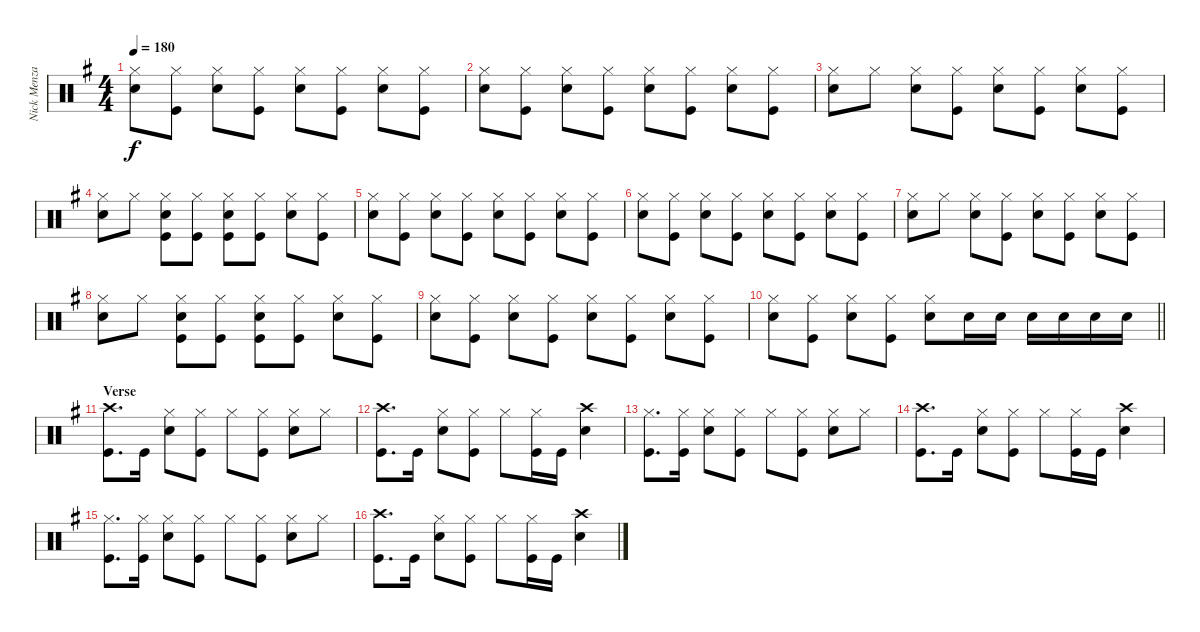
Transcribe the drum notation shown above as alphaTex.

\track ("Nick Menza" "Nick Menza") {instrument percussion}
\staff {score}
\articulation defaults
\ts (4 4)
\tempo 180
\clef neutral
\ks g
("Hi-Hat (closed)" "Snare (hit) 2").8{dy f} ("Kick (hit)" "Hi-Hat (closed)").8 ("Hi-Hat (closed)" "Snare (hit) 2").8 ("Kick (hit)" "Hi-Hat (closed)").8 ("Hi-Hat (closed)" "Snare (hit) 2").8 ("Kick (hit)" "Hi-Hat (closed)").8 ("Hi-Hat (closed)" "Snare (hit) 2").8 ("Kick (hit)" "Hi-Hat (closed)").8 |
("Hi-Hat (closed)" "Snare (hit) 2").8 ("Kick (hit)" "Hi-Hat (closed)").8 ("Hi-Hat (closed)" "Snare (hit) 2").8 ("Kick (hit)" "Hi-Hat (closed)").8 ("Hi-Hat (closed)" "Snare (hit) 2").8 ("Kick (hit)" "Hi-Hat (closed)").8 ("Hi-Hat (closed)" "Snare (hit) 2").8 ("Kick (hit)" "Hi-Hat (closed)").8 |
("Hi-Hat (closed)" "Snare (hit) 2").8 "Hi-Hat (closed)".8 ("Hi-Hat (closed)" "Snare (hit) 2").8 ("Kick (hit)" "Hi-Hat (closed)").8 ("Hi-Hat (closed)" "Snare (hit) 2").8 ("Kick (hit)" "Hi-Hat (closed)").8 ("Hi-Hat (closed)" "Snare (hit) 2").8 ("Kick (hit)" "Hi-Hat (closed)").8 |
("Hi-Hat (closed)" "Snare (hit) 2").8 "Hi-Hat (closed)".8 ("Kick (hit)" "Hi-Hat (closed)" "Snare (hit) 2").8 ("Kick (hit)" "Hi-Hat (closed)").8 ("Kick (hit)" "Hi-Hat (closed)" "Snare (hit) 2").8 ("Kick (hit)" "Hi-Hat (closed)").8 ("Hi-Hat (closed)" "Snare (hit) 2").8 ("Kick (hit)" "Hi-Hat (closed)").8 |
("Hi-Hat (closed)" "Snare (hit) 2").8 ("Kick (hit)" "Hi-Hat (closed)").8 ("Hi-Hat (closed)" "Snare (hit) 2").8 ("Kick (hit)" "Hi-Hat (closed)").8 ("Hi-Hat (closed)" "Snare (hit) 2").8 ("Kick (hit)" "Hi-Hat (closed)").8 ("Hi-Hat (closed)" "Snare (hit) 2").8 ("Kick (hit)" "Hi-Hat (closed)").8 |
("Hi-Hat (closed)" "Snare (hit) 2").8 ("Kick (hit)" "Hi-Hat (closed)").8 ("Hi-Hat (closed)" "Snare (hit) 2").8 ("Kick (hit)" "Hi-Hat (closed)").8 ("Hi-Hat (closed)" "Snare (hit) 2").8 ("Kick (hit)" "Hi-Hat (closed)").8 ("Hi-Hat (closed)" "Snare (hit) 2").8 ("Kick (hit)" "Hi-Hat (closed)").8 |
("Hi-Hat (closed)" "Snare (hit) 2").8 "Hi-Hat (closed)".8 ("Hi-Hat (closed)" "Snare (hit) 2").8 ("Kick (hit)" "Hi-Hat (closed)").8 ("Hi-Hat (closed)" "Snare (hit) 2").8 ("Kick (hit)" "Hi-Hat (closed)").8 ("Hi-Hat (closed)" "Snare (hit) 2").8 ("Kick (hit)" "Hi-Hat (closed)").8 |
("Hi-Hat (closed)" "Snare (hit) 2").8 "Hi-Hat (closed)".8 ("Kick (hit)" "Hi-Hat (closed)" "Snare (hit) 2").8 ("Kick (hit)" "Hi-Hat (closed)").8 ("Kick (hit)" "Hi-Hat (closed)" "Snare (hit) 2").8 ("Kick (hit)" "Hi-Hat (closed)").8 ("Hi-Hat (closed)" "Snare (hit) 2").8 ("Kick (hit)" "Hi-Hat (closed)").8 |
("Hi-Hat (closed)" "Snare (hit) 2").8 ("Kick (hit)" "Hi-Hat (closed)").8 ("Hi-Hat (closed)" "Snare (hit) 2").8 ("Kick (hit)" "Hi-Hat (closed)").8 ("Hi-Hat (closed)" "Snare (hit) 2").8 ("Kick (hit)" "Hi-Hat (closed)").8 ("Hi-Hat (closed)" "Snare (hit) 2").8 ("Kick (hit)" "Hi-Hat (closed)").8 |
\barLineRight lightlight
("Hi-Hat (closed)" "Snare (hit) 2").8 ("Kick (hit)" "Hi-Hat (closed)").8 ("Hi-Hat (closed)" "Snare (hit) 2").8 ("Kick (hit)" "Hi-Hat (closed)").8 ("Hi-Hat (closed)" "Snare (hit) 2").8 "Snare (hit) 2".16 "Snare (hit) 2".16 "Snare (hit) 2".16 "Snare (hit) 2".16 "Snare (hit) 2".16 "Snare (hit) 2".16 |
\section ("" "Verse")
("Kick (hit)" "Crash high (hit)").8{d} "Kick (hit)".16 ("Hi-Hat (closed)" "Snare (hit) 2").8 ("Kick (hit)" "Hi-Hat (closed)").8 "Hi-Hat (closed)".8 ("Kick (hit)" "Hi-Hat (closed)").8 ("Hi-Hat (closed)" "Snare (hit) 2").8 "Hi-Hat (closed)".8 |
("Kick (hit)" "Crash high (hit)").8{d} "Kick (hit)".16 ("Hi-Hat (closed)" "Snare (hit) 2").8 ("Kick (hit)" "Hi-Hat (closed)").8 "Hi-Hat (closed)".8 ("Kick (hit)" "Hi-Hat (closed)").16 "Kick (hit)".16 ("Crash high (hit)" "Snare (hit) 2").4 |
("Kick (hit)" "Hi-Hat (closed)").8{d} ("Kick (hit)" "Hi-Hat (closed)").16 ("Hi-Hat (closed)" "Snare (hit) 2").8 ("Kick (hit)" "Hi-Hat (closed)").8 "Hi-Hat (closed)".8 ("Kick (hit)" "Hi-Hat (closed)").8 ("Hi-Hat (closed)" "Snare (hit) 2").8 "Hi-Hat (closed)".8 |
("Kick (hit)" "Crash high (hit)").8{d} "Kick (hit)".16 ("Hi-Hat (closed)" "Snare (hit) 2").8 ("Kick (hit)" "Hi-Hat (closed)").8 "Hi-Hat (closed)".8 ("Kick (hit)" "Hi-Hat (closed)").16 "Kick (hit)".16 ("Crash high (hit)" "Snare (hit) 2").4 |
("Kick (hit)" "Hi-Hat (closed)").8{d} ("Kick (hit)" "Hi-Hat (closed)").16 ("Hi-Hat (closed)" "Snare (hit) 2").8 ("Kick (hit)" "Hi-Hat (closed)").8 "Hi-Hat (closed)".8 ("Kick (hit)" "Hi-Hat (closed)").8 ("Hi-Hat (closed)" "Snare (hit) 2").8 "Hi-Hat (closed)".8 |
("Kick (hit)" "Crash high (hit)").8{d} "Kick (hit)".16 ("Hi-Hat (closed)" "Snare (hit) 2").8 ("Kick (hit)" "Hi-Hat (closed)").8 "Hi-Hat (closed)".8 ("Kick (hit)" "Hi-Hat (closed)").16 "Kick (hit)".16 ("Crash high (hit)" "Snare (hit) 2").4
